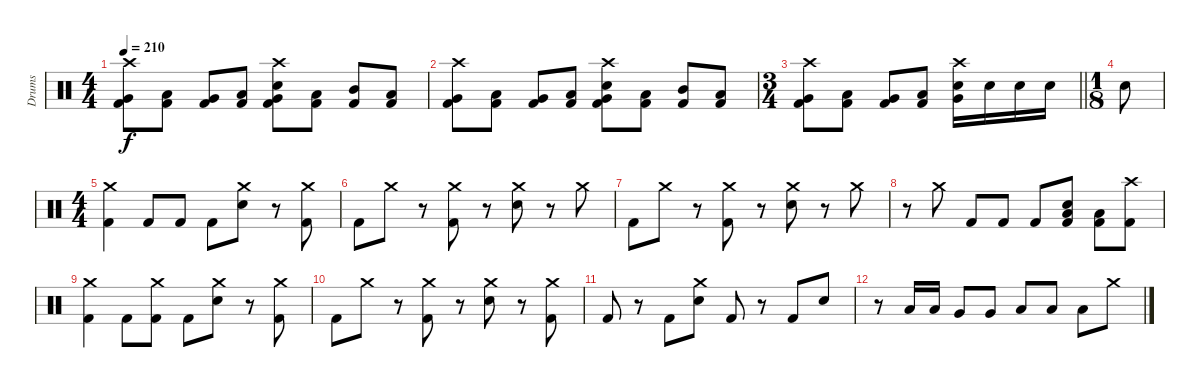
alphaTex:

\track ("Drums" "Drums") {instrument percussion}
\staff {score}
\articulation defaults
\ts (4 4)
\tempo 210
\clef neutral
\ks c
("Crash high (hit)" "Very Low Tom (hit)" "Kick (hit) 2").8{dy f} ("Low Tom (hit)" "Kick (hit) 2").8 ("Very Low Tom (hit)" "Kick (hit) 2").8 ("Low Floor Tom (hit)" "Kick (hit) 2").8 ("Crash high (hit)" "Very Low Tom (hit)" "Electric Snare (hit)" "Kick (hit) 2").8 ("Low Tom (hit)" "Kick (hit) 2").8 ("Mid Tom (hit)" "Kick (hit) 2").8 ("Low Tom (hit)" "Kick (hit) 2").8 |
("Crash high (hit)" "Very Low Tom (hit)" "Kick (hit) 2").8 ("Low Tom (hit)" "Kick (hit) 2").8 ("Very Low Tom (hit)" "Kick (hit) 2").8 ("Low Floor Tom (hit)" "Kick (hit) 2").8 ("Crash high (hit)" "Very Low Tom (hit)" "Electric Snare (hit)" "Kick (hit) 2").8 ("Low Tom (hit)" "Kick (hit) 2").8 ("Mid Tom (hit)" "Kick (hit) 2").8 ("Low Tom (hit)" "Kick (hit) 2").8 |
\ts (3 4)
\barLineRight lightlight
("Crash high (hit)" "Very Low Tom (hit)" "Kick (hit) 2").8 ("Low Tom (hit)" "Kick (hit) 2").8 ("Very Low Tom (hit)" "Kick (hit) 2").8 ("Low Floor Tom (hit)" "Kick (hit) 2").8 ("Crash high (hit)" "Very Low Tom (hit)" "Electric Snare (hit)").16 "Electric Snare (hit)".16 "Electric Snare (hit)".16 "Electric Snare (hit)".16 |
\ts (1 8)
"Electric Snare (hit)".8 |
\ts (4 4)
("Crash medium (hit)" "Kick (hit) 2").4 "Kick (hit) 2".8 "Kick (hit) 2".8 "Kick (hit) 2".8 ("Crash medium (hit)" "Electric Snare (hit)").8 r.8 ("Crash medium (hit)" "Kick (hit) 2").8 |
"Kick (hit) 2".8 "Crash medium (hit)".8 r.8 ("Crash medium (hit)" "Kick (hit) 2").8 r.8 ("Crash medium (hit)" "Electric Snare (hit)").8 r.8 "Crash medium (hit)".8 |
"Kick (hit) 2".8 "Crash medium (hit)".8 r.8 ("Crash medium (hit)" "Kick (hit) 2").8 r.8 ("Crash medium (hit)" "Electric Snare (hit)").8 r.8 "Crash medium (hit)".8 |
r.8 "Crash medium (hit)".8 "Kick (hit) 2".8 "Kick (hit) 2".8 "Kick (hit) 2".8 ("Electric Snare (hit)" "Low Floor Tom (hit)" "Kick (hit) 2").8 ("Low Floor Tom (hit)" "Kick (hit) 2").8 ("Crash high (hit)" "Kick (hit) 2").8 |
("Crash medium (hit)" "Kick (hit) 2").4 "Kick (hit) 2".8 ("Crash medium (hit)" "Kick (hit) 2").8 "Kick (hit) 2".8 ("Crash medium (hit)" "Electric Snare (hit)").8 r.8 ("Crash medium (hit)" "Kick (hit) 2").8 |
"Kick (hit) 2".8 "Crash medium (hit)".8 r.8 ("Crash medium (hit)" "Kick (hit) 2").8 r.8 ("Crash medium (hit)" "Electric Snare (hit)").8 r.8 ("Crash medium (hit)" "Kick (hit) 2").8 |
"Kick (hit) 2".8 r.8 "Kick (hit) 2".8 ("Crash medium (hit)" "Electric Snare (hit)").8 "Kick (hit) 2".8 r.8 "Kick (hit) 2".8 "Electric Snare (hit)".8 |
r.8 "Low Tom (hit)".16 "Low Tom (hit)".16 "Very Low Tom (hit)".8 "Very Low Tom (hit)".8 "Low Floor Tom (hit)".8 "Low Floor Tom (hit)".8 "Low Floor Tom (hit)".8 "Crash medium (hit)".8
